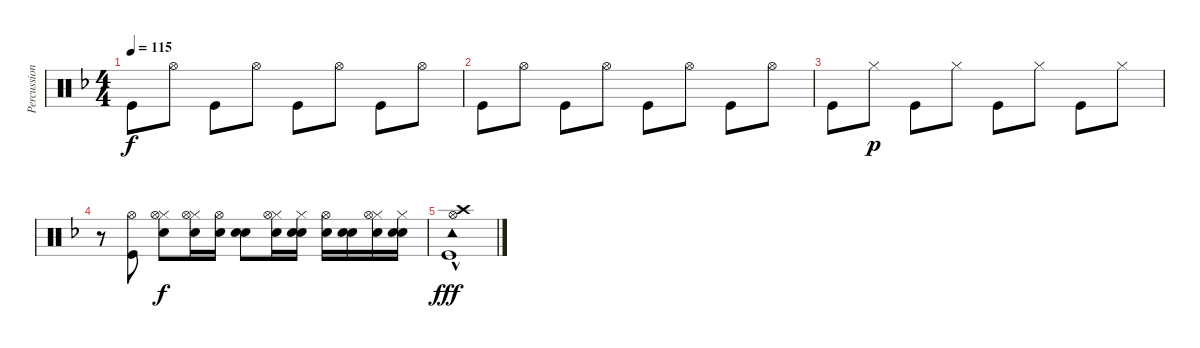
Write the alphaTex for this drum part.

\track ("Percussion" "Percussion") {instrument percussion}
\staff {score}
\articulation defaults
\ts (4 4)
\tempo 115
\clef neutral
\ks dminor "Kick (hit)".8{dy f} "Hi-Hat (open)".8 "Kick (hit)".8 "Hi-Hat (open)".8 "Kick (hit)".8 "Hi-Hat (open)".8 "Kick (hit)".8 "Hi-Hat (open)".8
|
"Kick (hit)".8 "Hi-Hat (open)".8 "Kick (hit)".8 "Hi-Hat (open)".8 "Kick (hit)".8 "Hi-Hat (open)".8 "Kick (hit)".8 "Hi-Hat (open)".8 |
"Kick (hit)".8 "Hi-Hat (closed)".8{dy p} "Kick (hit)".8 "Hi-Hat (closed)".8 "Kick (hit)".8 "Hi-Hat (closed)".8 "Kick (hit)".8 "Hi-Hat (closed)".8 |
r.8 ("Hi-Hat (open)" "Kick (hit)").8 ("Hi-Hat (closed)" "Hi-Hat (open)" "Electric Snare (hit)").8{dy f} ("Hi-Hat (closed)" "Hi-Hat (open)" "Electric Snare (hit)").16 ("Hi-Hat (open)" "Snare (hit) 2").16 ("Electric Snare (hit)" "Snare (hit) 2").8 ("Hi-Hat (closed)" "Hi-Hat (open)" "Electric Snare (hit)").16 ("Hi-Hat (closed)" "Electric Snare (hit)" "Electric Snare (hit)").16 ("Hi-Hat (open)" "Snare (hit) 2").16 ("Electric Snare (hit)" "Snare (hit) 2").16 ("Hi-Hat (closed)" "Hi-Hat (open)" "Electric Snare (hit)").16 ("Hi-Hat (closed)" "Electric Snare (hit)" "Electric Snare (hit)").16 |
("Crash high (hit)" "Hi-Hat (open)" "Tambourine (hit)"{hac} "Kick (hit)").1{dy fff}
